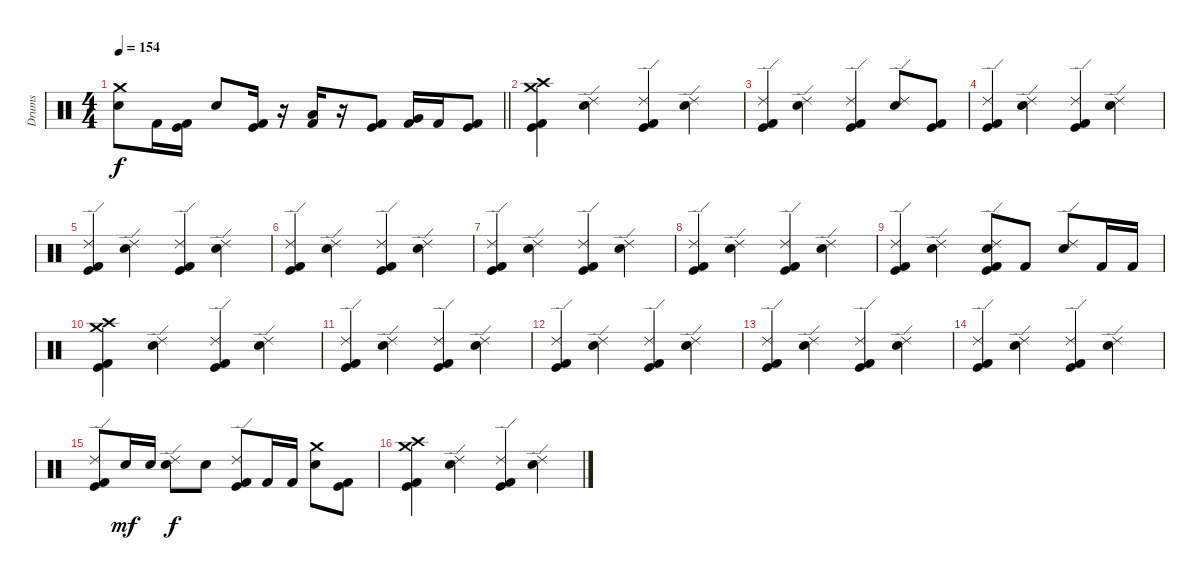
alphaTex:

\track ("Drums" "Drums") {instrument percussion}
\staff {score}
\articulation defaults
\ts (4 4)
\tempo 154
\clef neutral
\barLineRight lightlight
\ks c
("Crash medium (hit)" "Snare (hit) 2").8{dy f} "Kick (hit) 2".16 ("Kick (hit)" "Kick (hit) 2").16 "Snare (hit) 2".8 ("Kick (hit)" "Kick (hit) 2").16 r.16 ("Low Tom (hit)" "Kick (hit) 2").16 r.16 ("Kick (hit)" "Kick (hit) 2").8 ("Very Low Tom (hit)" "Kick (hit) 2").16 "Kick (hit) 2".16 ("Kick (hit)" "Kick (hit) 2").8 |
("Crash medium (hit)" "Crash high (hit)" "Kick (hit)" "Kick (hit) 2").4 ("Ride (edge) 2" "Snare (hit) 2").4 ("Ride (edge) 2" "Kick (hit)" "Kick (hit) 2").4 ("Ride (edge) 2" "Snare (hit) 2").4 |
("Ride (edge) 2" "Kick (hit)" "Kick (hit) 2").4 ("Ride (edge) 2" "Snare (hit) 2").4 ("Ride (edge) 2" "Kick (hit)" "Kick (hit) 2").4 ("Ride (edge) 2" "Snare (hit) 2").8 ("Kick (hit)" "Kick (hit) 2").8 |
("Ride (edge) 2" "Kick (hit)" "Kick (hit) 2").4 ("Ride (edge) 2" "Snare (hit) 2").4 ("Ride (edge) 2" "Kick (hit)" "Kick (hit) 2").4 ("Ride (edge) 2" "Snare (hit) 2").4 |
("Ride (edge) 2" "Kick (hit)" "Kick (hit) 2").4 ("Ride (edge) 2" "Snare (hit) 2").4 ("Ride (edge) 2" "Kick (hit)" "Kick (hit) 2").4 ("Ride (edge) 2" "Snare (hit) 2").4 |
("Ride (edge) 2" "Kick (hit)" "Kick (hit) 2").4 ("Ride (edge) 2" "Snare (hit) 2").4 ("Ride (edge) 2" "Kick (hit)" "Kick (hit) 2").4 ("Ride (edge) 2" "Snare (hit) 2").4 |
("Ride (edge) 2" "Kick (hit)" "Kick (hit) 2").4 ("Ride (edge) 2" "Snare (hit) 2").4 ("Ride (edge) 2" "Kick (hit)" "Kick (hit) 2").4 ("Ride (edge) 2" "Snare (hit) 2").4 |
("Ride (edge) 2" "Kick (hit)" "Kick (hit) 2").4 ("Ride (edge) 2" "Snare (hit) 2").4 ("Ride (edge) 2" "Kick (hit)" "Kick (hit) 2").4 ("Ride (edge) 2" "Snare (hit) 2").4 |
("Ride (edge) 2" "Kick (hit)" "Kick (hit) 2").4 ("Ride (edge) 2" "Snare (hit) 2").4 ("Ride (edge) 2" "Snare (hit) 2" "Kick (hit)" "Kick (hit) 2").8 "Kick (hit) 2".8 ("Ride (edge) 2" "Snare (hit) 2").8 "Kick (hit) 2".16 "Kick (hit) 2".16 |
("Crash medium (hit)" "Crash high (hit)" "Kick (hit)" "Kick (hit) 2").4 ("Ride (edge) 2" "Snare (hit) 2").4 ("Ride (edge) 2" "Kick (hit)" "Kick (hit) 2").4 ("Ride (edge) 2" "Snare (hit) 2").4 |
("Ride (edge) 2" "Kick (hit)" "Kick (hit) 2").4 ("Ride (edge) 2" "Snare (hit) 2").4 ("Ride (edge) 2" "Kick (hit)" "Kick (hit) 2").4 ("Ride (edge) 2" "Snare (hit) 2").4 |
("Ride (edge) 2" "Kick (hit)" "Kick (hit) 2").4 ("Ride (edge) 2" "Snare (hit) 2").4 ("Ride (edge) 2" "Kick (hit)" "Kick (hit) 2").4 ("Ride (edge) 2" "Snare (hit) 2").4 |
("Ride (edge) 2" "Kick (hit)" "Kick (hit) 2").4 ("Ride (edge) 2" "Snare (hit) 2").4 ("Ride (edge) 2" "Kick (hit)" "Kick (hit) 2").4 ("Ride (edge) 2" "Snare (hit) 2").4 |
("Ride (edge) 2" "Kick (hit)" "Kick (hit) 2").4 ("Ride (edge) 2" "Snare (hit) 2").4 ("Ride (edge) 2" "Kick (hit)" "Kick (hit) 2").4 ("Ride (edge) 2" "Snare (hit) 2").4 |
("Ride (edge) 2" "Kick (hit)" "Kick (hit) 2").8 "Electric Snare (hit)".16{dy mf} "Electric Snare (hit)".16 ("Ride (edge) 2" "Snare (hit) 2").8{dy f} "Electric Snare (hit)".8 ("Ride (edge) 2" "Kick (hit)" "Kick (hit) 2").8 "Kick (hit) 2".16 "Kick (hit) 2".16 ("Crash medium (hit)" "Snare (hit) 2").8 ("Kick (hit)" "Kick (hit) 2").8 |
("Crash medium (hit)" "Crash high (hit)" "Kick (hit)" "Kick (hit) 2").4 ("Ride (edge) 2" "Snare (hit) 2").4 ("Ride (edge) 2" "Kick (hit)" "Kick (hit) 2").4 ("Ride (edge) 2" "Snare (hit) 2").4
